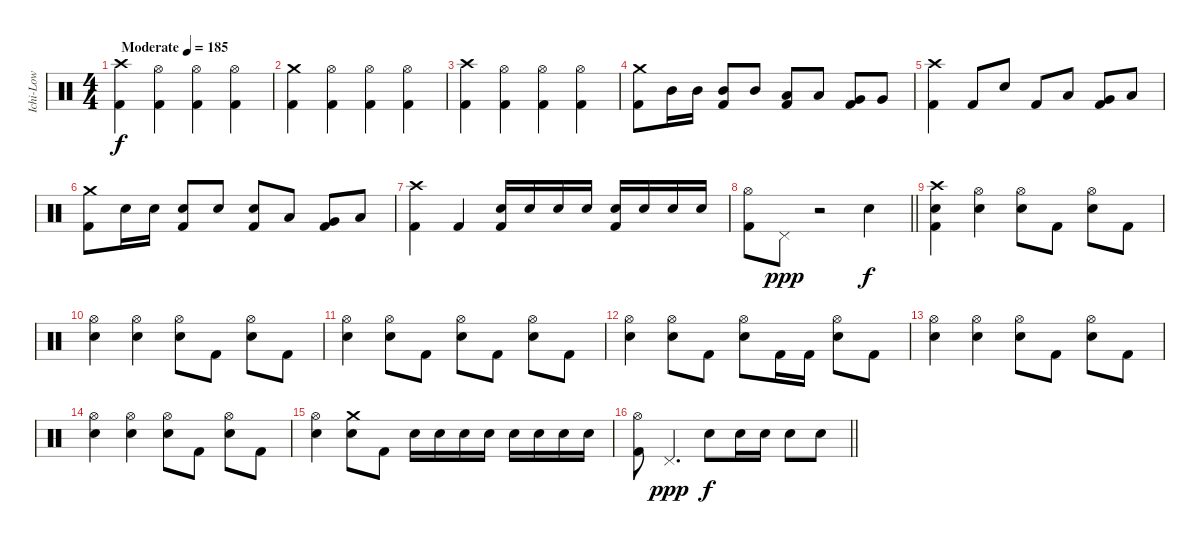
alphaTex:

\track ("Ichi-Low" "Ichi-Low") {instrument percussion}
\staff {score}
\articulation defaults
\ts (4 4)
\tempo (185 "Moderate")
\clef neutral
\ks c
("Crash high (hit)" "Kick (hit) 2").4{dy f} ("Hi-Hat (open)" "Kick (hit) 2").4 ("Hi-Hat (open)" "Kick (hit) 2").4 ("Hi-Hat (open)" "Kick (hit) 2").4 |
("Crash medium (hit)" "Kick (hit) 2").4 ("Hi-Hat (open)" "Kick (hit) 2").4 ("Hi-Hat (open)" "Kick (hit) 2").4 ("Hi-Hat (open)" "Kick (hit) 2").4 |
("Crash high (hit)" "Kick (hit) 2").4 ("Hi-Hat (open)" "Kick (hit) 2").4 ("Hi-Hat (open)" "Kick (hit) 2").4 ("Hi-Hat (open)" "Kick (hit) 2").4 |
("Crash medium (hit)" "Kick (hit) 2").8 "Mid Tom (hit)".16 "Mid Tom (hit)".16 ("Mid Tom (hit)" "Kick (hit) 2").8 "Mid Tom (hit)".8 ("Low Tom (hit)" "Kick (hit) 2").8 "Low Tom (hit)".8 ("Very Low Tom (hit)" "Kick (hit) 2").8 "Very Low Tom (hit)".8 |
("Crash high (hit)" "Kick (hit) 2").4 "Kick (hit) 2".8 "Electric Snare (hit)".8 "Kick (hit) 2".8 "Low Tom (hit)".8 ("Very Low Tom (hit)" "Kick (hit) 2").8 "Low Floor Tom (hit)".8 |
("Crash medium (hit)" "Kick (hit) 2").8 "Electric Snare (hit)".16 "Electric Snare (hit)".16 ("Electric Snare (hit)" "Kick (hit) 2").8 "Electric Snare (hit)".8 ("Electric Snare (hit)" "Kick (hit) 2").8 "Low Tom (hit)".8 ("Very Low Tom (hit)" "Kick (hit) 2").8 "Low Floor Tom (hit)".8 |
("Crash high (hit)" "Kick (hit) 2").4 "Kick (hit) 2".4 ("Electric Snare (hit)" "Kick (hit) 2").16 "Electric Snare (hit)".16 "Electric Snare (hit)".16 "Electric Snare (hit)".16 ("Electric Snare (hit)" "Kick (hit) 2").16 "Electric Snare (hit)".16 "Electric Snare (hit)".16 "Electric Snare (hit)".16 |
\barLineRight lightlight
("Hi-Hat (open)" "Kick (hit) 2").8 "Pedal Hi-Hat (hit)".8{dy ppp} r.2 "Electric Snare (hit)".4{dy f} |
\section ("" "")
("Crash high (hit)" "Electric Snare (hit)" "Kick (hit) 2").4 ("Hi-Hat (open)" "Electric Snare (hit)").4 ("Hi-Hat (open)" "Electric Snare (hit)").8 "Kick (hit) 2".8 ("Hi-Hat (open)" "Electric Snare (hit)").8 "Kick (hit) 2".8 |
("Hi-Hat (open)" "Electric Snare (hit)").4 ("Hi-Hat (open)" "Electric Snare (hit)").4 ("Hi-Hat (open)" "Electric Snare (hit)").8 "Kick (hit) 2".8 ("Hi-Hat (open)" "Electric Snare (hit)").8 "Kick (hit) 2".8 |
("Hi-Hat (open)" "Electric Snare (hit)").4 ("Hi-Hat (open)" "Electric Snare (hit)").8 "Kick (hit) 2".8 ("Hi-Hat (open)" "Electric Snare (hit)").8 "Kick (hit) 2".8 ("Hi-Hat (open)" "Electric Snare (hit)").8 "Kick (hit) 2".8 |
("Hi-Hat (open)" "Electric Snare (hit)").4 ("Hi-Hat (open)" "Electric Snare (hit)").8 "Kick (hit) 2".8 ("Hi-Hat (open)" "Electric Snare (hit)").8 "Kick (hit) 2".16 "Kick (hit) 2".16 ("Hi-Hat (open)" "Electric Snare (hit)").8 "Kick (hit) 2".8 |
("Hi-Hat (open)" "Electric Snare (hit)").4 ("Hi-Hat (open)" "Electric Snare (hit)").4 ("Hi-Hat (open)" "Electric Snare (hit)").8 "Kick (hit) 2".8 ("Hi-Hat (open)" "Electric Snare (hit)").8 "Kick (hit) 2".8 |
("Hi-Hat (open)" "Electric Snare (hit)").4 ("Hi-Hat (open)" "Electric Snare (hit)").4 ("Hi-Hat (open)" "Electric Snare (hit)").8 "Kick (hit) 2".8 ("Hi-Hat (open)" "Electric Snare (hit)").8 "Kick (hit) 2".8 |
("Hi-Hat (open)" "Electric Snare (hit)").4 ("Crash medium (hit)" "Electric Snare (hit)").8 "Kick (hit) 2".8 "Electric Snare (hit)".16 "Electric Snare (hit)".16 "Electric Snare (hit)".16 "Electric Snare (hit)".16 "Electric Snare (hit)".16 "Electric Snare (hit)".16 "Electric Snare (hit)".16 "Electric Snare (hit)".16 |
\barLineRight lightlight
("Hi-Hat (open)" "Kick (hit) 2").8 "Pedal Hi-Hat (hit)".4{d dy ppp} "Electric Snare (hit)".8{dy f} "Electric Snare (hit)".16 "Electric Snare (hit)".16 "Electric Snare (hit)".8 "Electric Snare (hit)".8
